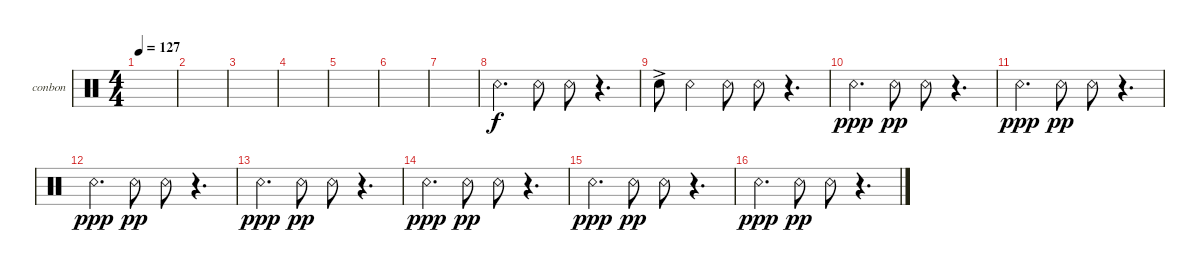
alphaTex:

\defaultSystemsLayout 4
\bracketExtendMode groupsimilarinstruments
\firstSystemTrackNameOrientation horizontal
\otherSystemsTrackNameOrientation horizontal
\track ("Bongos N Congas" "conbon") {instrument percussion}
\staff {score}
\articulation defaults
\ts (4 4)
\tempo 127
\clef neutral
\scale
0.333333
\ks c
|
\scale
0.333333 |
\scale
0.333333 |
\scale
0.333333 |
\scale
0.333333 |
\scale
0.333333 |
\scale
0.333333 |
\scale
0.333333 "Snare (rim shot)".4{d} "Snare (rim shot)".8 "Snare (rim shot)".8 r.4{d} |
\scale
0.333333 "Snare (hit) 2"{ac}.8 "Snare (rim shot)".4 "Snare (rim shot)".8 "Snare (rim shot)".8 r.4{d} |
\scale
0.333333 "Snare (rim shot)".4{d dy ppp} "Snare (rim shot)".8{dy pp} "Snare (rim shot)".8 r.4{d} |
\scale
0.333333 "Snare (rim shot)".4{d dy ppp} "Snare (rim shot)".8{dy pp} "Snare (rim shot)".8 r.4{d} |
\scale
0.333333 "Snare (rim shot)".4{d dy ppp} "Snare (rim shot)".8{dy pp} "Snare (rim shot)".8 r.4{d} |
\scale
0.333333 "Snare (rim shot)".4{d dy ppp} "Snare (rim shot)".8{dy pp} "Snare (rim shot)".8 r.4{d} |
\scale
0.333333 "Snare (rim shot)".4{d dy ppp} "Snare (rim shot)".8{dy pp} "Snare (rim shot)".8 r.4{d} |
\scale
0.333333 "Snare (rim shot)".4{d dy ppp} "Snare (rim shot)".8{dy pp} "Snare (rim shot)".8 r.4{d} |
\scale
0.333333 "Snare (rim shot)".4{d dy ppp} "Snare (rim shot)".8{dy pp} "Snare (rim shot)".8 r.4{d}
